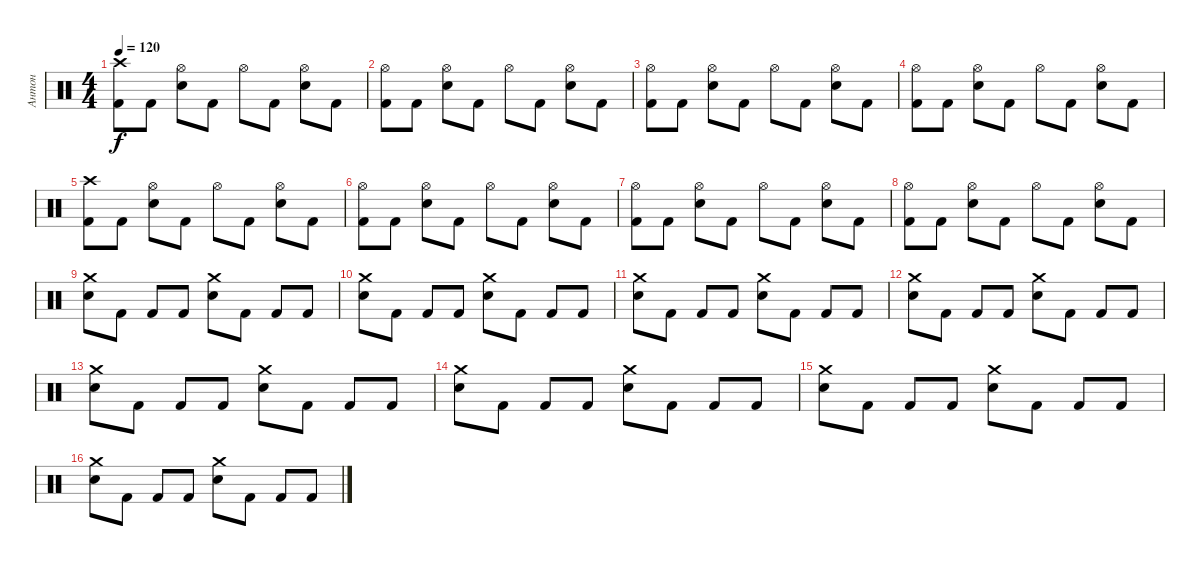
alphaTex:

\track ("Антон" "Антон") {instrument percussion}
\staff {score}
\articulation defaults
\ts (4 4)
\tempo 120
\clef neutral
\ks c
("Crash high (hit)" "Kick (hit) 2").8{dy f} "Kick (hit) 2".8 ("Hi-Hat (open)" "Electric Snare (hit)").8 "Kick (hit) 2".8 "Hi-Hat (open)".8 "Kick (hit) 2".8 ("Hi-Hat (open)" "Electric Snare (hit)").8 "Kick (hit) 2".8 |
("Hi-Hat (open)" "Kick (hit) 2").8 "Kick (hit) 2".8 ("Hi-Hat (open)" "Electric Snare (hit)").8 "Kick (hit) 2".8 "Hi-Hat (open)".8 "Kick (hit) 2".8 ("Hi-Hat (open)" "Electric Snare (hit)").8 "Kick (hit) 2".8 |
("Hi-Hat (open)" "Kick (hit) 2").8 "Kick (hit) 2".8 ("Hi-Hat (open)" "Electric Snare (hit)").8 "Kick (hit) 2".8 "Hi-Hat (open)".8 "Kick (hit) 2".8 ("Hi-Hat (open)" "Electric Snare (hit)").8 "Kick (hit) 2".8 |
("Hi-Hat (open)" "Kick (hit) 2").8 "Kick (hit) 2".8 ("Hi-Hat (open)" "Electric Snare (hit)").8 "Kick (hit) 2".8 "Hi-Hat (open)".8 "Kick (hit) 2".8 ("Hi-Hat (open)" "Electric Snare (hit)").8 "Kick (hit) 2".8 |
("Crash high (hit)" "Kick (hit) 2").8 "Kick (hit) 2".8 ("Hi-Hat (open)" "Electric Snare (hit)").8 "Kick (hit) 2".8 "Hi-Hat (open)".8 "Kick (hit) 2".8 ("Hi-Hat (open)" "Electric Snare (hit)").8 "Kick (hit) 2".8 |
("Hi-Hat (open)" "Kick (hit) 2").8 "Kick (hit) 2".8 ("Hi-Hat (open)" "Electric Snare (hit)").8 "Kick (hit) 2".8 "Hi-Hat (open)".8 "Kick (hit) 2".8 ("Hi-Hat (open)" "Electric Snare (hit)").8 "Kick (hit) 2".8 |
("Hi-Hat (open)" "Kick (hit) 2").8 "Kick (hit) 2".8 ("Hi-Hat (open)" "Electric Snare (hit)").8 "Kick (hit) 2".8 "Hi-Hat (open)".8 "Kick (hit) 2".8 ("Hi-Hat (open)" "Electric Snare (hit)").8 "Kick (hit) 2".8 |
("Hi-Hat (open)" "Kick (hit) 2").8 "Kick (hit) 2".8 ("Hi-Hat (open)" "Electric Snare (hit)").8 "Kick (hit) 2".8 "Hi-Hat (open)".8 "Kick (hit) 2".8 ("Hi-Hat (open)" "Electric Snare (hit)").8 "Kick (hit) 2".8 |
("Crash medium (hit)" "Electric Snare (hit)").8 "Kick (hit) 2".8 "Kick (hit) 2".8 "Kick (hit) 2".8 ("Crash medium (hit)" "Electric Snare (hit)").8 "Kick (hit) 2".8 "Kick (hit) 2".8 "Kick (hit) 2".8 |
("Crash medium (hit)" "Electric Snare (hit)").8 "Kick (hit) 2".8 "Kick (hit) 2".8 "Kick (hit) 2".8 ("Crash medium (hit)" "Electric Snare (hit)").8 "Kick (hit) 2".8 "Kick (hit) 2".8 "Kick (hit) 2".8 |
("Crash medium (hit)" "Electric Snare (hit)").8 "Kick (hit) 2".8 "Kick (hit) 2".8 "Kick (hit) 2".8 ("Crash medium (hit)" "Electric Snare (hit)").8 "Kick (hit) 2".8 "Kick (hit) 2".8 "Kick (hit) 2".8 |
("Crash medium (hit)" "Electric Snare (hit)").8 "Kick (hit) 2".8 "Kick (hit) 2".8 "Kick (hit) 2".8 ("Crash medium (hit)" "Electric Snare (hit)").8 "Kick (hit) 2".8 "Kick (hit) 2".8 "Kick (hit) 2".8 |
("Crash medium (hit)" "Electric Snare (hit)").8 "Kick (hit) 2".8 "Kick (hit) 2".8 "Kick (hit) 2".8 ("Crash medium (hit)" "Electric Snare (hit)").8 "Kick (hit) 2".8 "Kick (hit) 2".8 "Kick (hit) 2".8 |
("Crash medium (hit)" "Electric Snare (hit)").8 "Kick (hit) 2".8 "Kick (hit) 2".8 "Kick (hit) 2".8 ("Crash medium (hit)" "Electric Snare (hit)").8 "Kick (hit) 2".8 "Kick (hit) 2".8 "Kick (hit) 2".8 |
("Crash medium (hit)" "Electric Snare (hit)").8 "Kick (hit) 2".8 "Kick (hit) 2".8 "Kick (hit) 2".8 ("Crash medium (hit)" "Electric Snare (hit)").8 "Kick (hit) 2".8 "Kick (hit) 2".8 "Kick (hit) 2".8 |
("Crash medium (hit)" "Electric Snare (hit)").8 "Kick (hit) 2".8 "Kick (hit) 2".8 "Kick (hit) 2".8 ("Crash medium (hit)" "Electric Snare (hit)").8 "Kick (hit) 2".8 "Kick (hit) 2".8 "Kick (hit) 2".8
